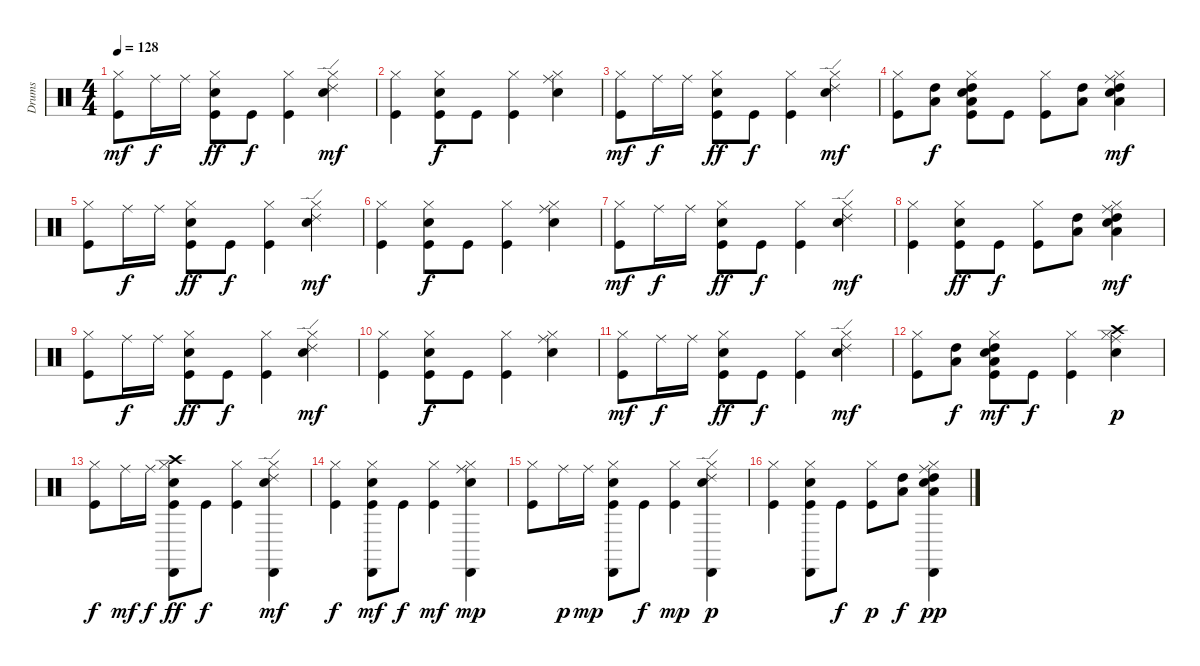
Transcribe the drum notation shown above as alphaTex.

\track ("Drums               " "Drums     ") {instrument percussion}
\staff {score}
\articulation defaults
\ts (4 4)
\tempo 128
\clef neutral
\ks c
("Hi-Hat (closed)" "Kick (hit)").8{dy mf} "Ride (middle)".16{dy f} "Ride (middle)".16 ("Hi-Hat (closed)" "Electric Snare (hit)" "Kick (hit)").8{dy ff} "Kick (hit)".8{dy f} ("Hi-Hat (closed)" "Kick (hit)").4 ("Ride (edge) 2" "Hi-Hat (closed)" "Electric Snare (hit)").4{dy mf} |
("Hi-Hat (closed)" "Kick (hit)").4 ("Hi-Hat (closed)" "Electric Snare (hit)" "Kick (hit)").8{dy f} "Kick (hit)".8 ("Hi-Hat (closed)" "Kick (hit)").4 ("Ride (middle)" "Hi-Hat (closed)" "Electric Snare (hit)").4 |
("Hi-Hat (closed)" "Kick (hit)").8{dy mf} "Ride (middle)".16{dy f} "Ride (middle)".16 ("Hi-Hat (closed)" "Electric Snare (hit)" "Kick (hit)").8{dy ff} "Kick (hit)".8{dy f} ("Hi-Hat (closed)" "Kick (hit)").4 ("Ride (edge) 2" "Hi-Hat (closed)" "Electric Snare (hit)").4{dy mf} |
("Hi-Hat (closed)" "Kick (hit)").8 ("High Tom (hit)" "Low Tom (hit)").8{dy f} ("Electric Snare (hit)" "Hi-Hat (closed)" "High Tom (hit)" "Low Tom (hit)" "Kick (hit)").8 "Kick (hit)".8 ("Hi-Hat (closed)" "Kick (hit)").8 ("High Tom (hit)" "Low Tom (hit)").8 ("Ride (middle)" "Hi-Hat (closed)" "High Tom (hit)" "Low Tom (hit)" "Electric Snare (hit)").4{dy mf} |
("Hi-Hat (closed)" "Kick (hit)").8 "Ride (middle)".16{dy f} "Ride (middle)".16 ("Hi-Hat (closed)" "Electric Snare (hit)" "Kick (hit)").8{dy ff} "Kick (hit)".8{dy f} ("Hi-Hat (closed)" "Kick (hit)").4 ("Ride (edge) 2" "Hi-Hat (closed)" "Electric Snare (hit)").4{dy mf} |
("Hi-Hat (closed)" "Kick (hit)").4 ("Hi-Hat (closed)" "Electric Snare (hit)" "Kick (hit)").8{dy f} "Kick (hit)".8 ("Hi-Hat (closed)" "Kick (hit)").4 ("Ride (middle)" "Hi-Hat (closed)" "Electric Snare (hit)").4 |
("Hi-Hat (closed)" "Kick (hit)").8{dy mf} "Ride (middle)".16{dy f} "Ride (middle)".16 ("Hi-Hat (closed)" "Electric Snare (hit)" "Kick (hit)").8{dy ff} "Kick (hit)".8{dy f} ("Hi-Hat (closed)" "Kick (hit)").4 ("Ride (edge) 2" "Hi-Hat (closed)" "Electric Snare (hit)").4{dy mf} |
("Hi-Hat (closed)" "Kick (hit)").4 ("Hi-Hat (closed)" "Electric Snare (hit)" "Kick (hit)").8{dy ff} "Kick (hit)".8{dy f} ("Hi-Hat (closed)" "Kick (hit)").8 ("High Tom (hit)" "Low Tom (hit)").8 ("Ride (middle)" "Hi-Hat (closed)" "High Tom (hit)" "Low Tom (hit)" "Electric Snare (hit)").4{dy mf} |
("Hi-Hat (closed)" "Kick (hit)").8 "Ride (middle)".16{dy f} "Ride (middle)".16 ("Hi-Hat (closed)" "Electric Snare (hit)" "Kick (hit)").8{dy ff} "Kick (hit)".8{dy f} ("Hi-Hat (closed)" "Kick (hit)").4 ("Ride (edge) 2" "Hi-Hat (closed)" "Electric Snare (hit)").4{dy mf} |
("Hi-Hat (closed)" "Kick (hit)").4 ("Hi-Hat (closed)" "Electric Snare (hit)" "Kick (hit)").8{dy f} "Kick (hit)".8 ("Hi-Hat (closed)" "Kick (hit)").4 ("Ride (middle)" "Hi-Hat (closed)" "Electric Snare (hit)").4 |
("Hi-Hat (closed)" "Kick (hit)").8{dy mf} "Ride (middle)".16{dy f} "Ride (middle)".16 ("Hi-Hat (closed)" "Electric Snare (hit)" "Kick (hit)").8{dy ff} "Kick (hit)".8{dy f} ("Hi-Hat (closed)" "Kick (hit)").4 ("Ride (edge) 2" "Hi-Hat (closed)" "Electric Snare (hit)").4{dy mf} |
("Hi-Hat (closed)" "Kick (hit)").8 ("High Tom (hit)" "Low Tom (hit)").8{dy f} ("Hi-Hat (closed)" "High Tom (hit)" "Low Tom (hit)" "Electric Snare (hit)" "Kick (hit)").8{dy mf} "Kick (hit)".8{dy f} ("Hi-Hat (closed)" "Kick (hit)").4 ("Ride (middle)" "Hi-Hat (closed)" "Crash high (hit)" "Electric Snare (hit)").4{dy p} |
("Hi-Hat (closed)" "Kick (hit)").8{dy f} "Ride (middle)".16{dy mf} "Ride (middle)".16{dy f} ("Crash high (hit)" "Hi-Hat (closed)" "Cabasa (hit)" "Snare (hit) 2" "Kick (hit)").8{dy ff} "Kick (hit)".8{dy f} ("Hi-Hat (closed)" "Kick (hit)").4 ("Cabasa (hit)" "Hi-Hat (closed)" "Ride (edge) 2" "Snare (hit) 2").4{dy mf} |
("Hi-Hat (closed)" "Kick (hit)").4{dy f} ("Hi-Hat (closed)" "Cabasa (hit)" "Snare (hit) 2" "Kick (hit)").8{dy mf} "Kick (hit)".8{dy f} ("Hi-Hat (closed)" "Kick (hit)").4{dy mf} ("Ride (middle)" "Cabasa (hit)" "Hi-Hat (closed)" "Snare (hit) 2").4{dy mp} |
("Hi-Hat (closed)" "Kick (hit)").8 "Ride (middle)".16{dy p} "Ride (middle)".16{dy mp} ("Hi-Hat (closed)" "Cabasa (hit)" "Snare (hit) 2" "Kick (hit)").8 "Kick (hit)".8{dy f} ("Hi-Hat (closed)" "Kick (hit)").4{dy mp} ("Hi-Hat (closed)" "Ride (edge) 2" "Cabasa (hit)" "Snare (hit) 2").4{dy p} |
("Hi-Hat (closed)" "Kick (hit)").4 ("Hi-Hat (closed)" "Cabasa (hit)" "Snare (hit) 2" "Kick (hit)").8 "Kick (hit)".8{dy f} ("Hi-Hat (closed)" "Kick (hit)").8{dy p} ("Low Tom (hit)" "High Tom (hit)").8{dy f} ("Ride (middle)" "Cabasa (hit)" "Low Tom (hit)" "Hi-Hat (closed)" "High Tom (hit)" "Snare (hit) 2").4{dy pp}
